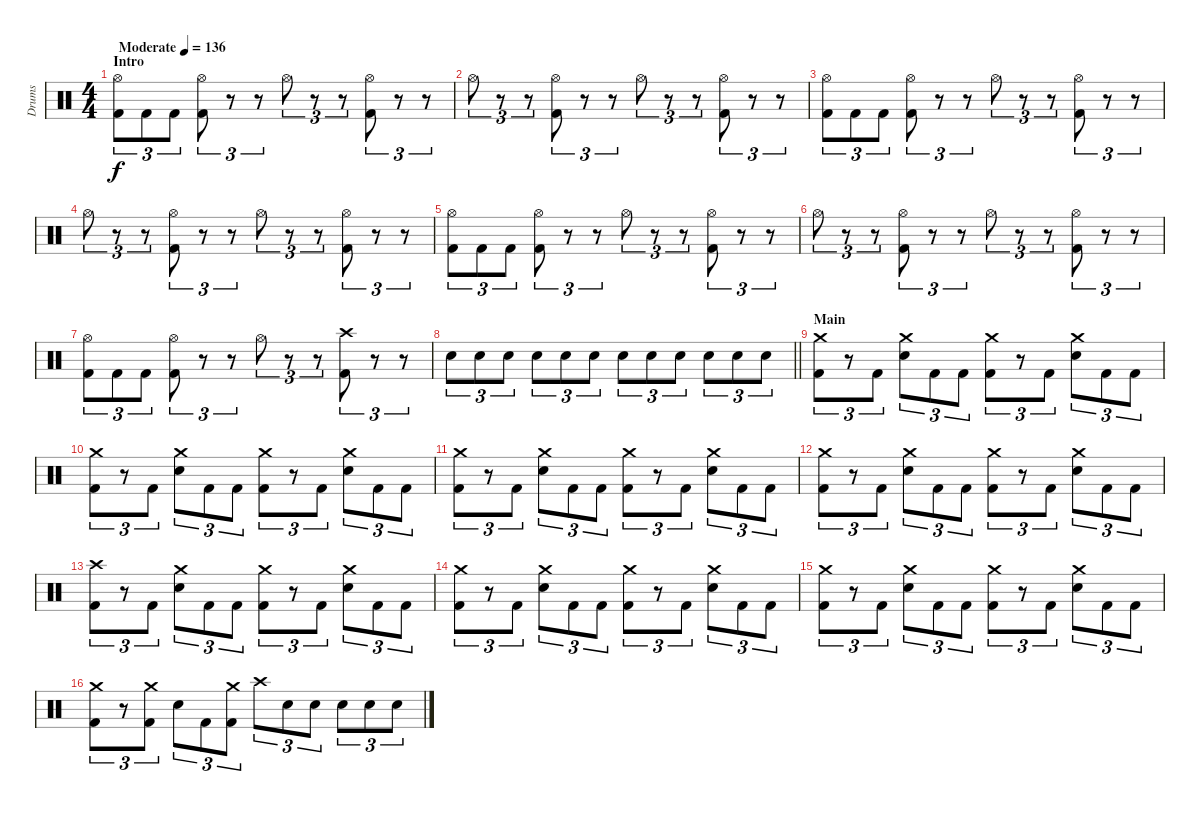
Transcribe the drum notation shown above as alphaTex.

\track ("Drums" "Drums") {instrument percussion}
\staff {score}
\articulation defaults
\ts (4 4)
\section ("" "Intro")
\tempo (136 "Moderate")
\clef neutral
\ks c
("Hi-Hat (open)" "Kick (hit) 2").8{tu (3 2) dy f} "Kick (hit) 2".8{tu (3 2)} "Kick (hit) 2".8{tu (3 2)} ("Hi-Hat (open)" "Kick (hit) 2").8{tu (3 2)} r.8{tu (3 2)} r.8{tu (3 2)} "Hi-Hat (open)".8{tu (3 2)} r.8{tu (3 2)} r.8{tu (3 2)} ("Hi-Hat (open)" "Kick (hit) 2").8{tu (3 2)} r.8{tu (3 2)} r.8{tu (3 2)} |
"Hi-Hat (open)".8{tu (3 2)} r.8{tu (3 2)} r.8{tu (3 2)} ("Hi-Hat (open)" "Kick (hit) 2").8{tu (3 2)} r.8{tu (3 2)} r.8{tu (3 2)} "Hi-Hat (open)".8{tu (3 2)} r.8{tu (3 2)} r.8{tu (3 2)} ("Hi-Hat (open)" "Kick (hit) 2").8{tu (3 2)} r.8{tu (3 2)} r.8{tu (3 2)} |
("Hi-Hat (open)" "Kick (hit) 2").8{tu (3 2)} "Kick (hit) 2".8{tu (3 2)} "Kick (hit) 2".8{tu (3 2)} ("Hi-Hat (open)" "Kick (hit) 2").8{tu (3 2)} r.8{tu (3 2)} r.8{tu (3 2)} "Hi-Hat (open)".8{tu (3 2)} r.8{tu (3 2)} r.8{tu (3 2)} ("Hi-Hat (open)" "Kick (hit) 2").8{tu (3 2)} r.8{tu (3 2)} r.8{tu (3 2)} |
"Hi-Hat (open)".8{tu (3 2)} r.8{tu (3 2)} r.8{tu (3 2)} ("Hi-Hat (open)" "Kick (hit) 2").8{tu (3 2)} r.8{tu (3 2)} r.8{tu (3 2)} "Hi-Hat (open)".8{tu (3 2)} r.8{tu (3 2)} r.8{tu (3 2)} ("Hi-Hat (open)" "Kick (hit) 2").8{tu (3 2)} r.8{tu (3 2)} r.8{tu (3 2)} |
("Hi-Hat (open)" "Kick (hit) 2").8{tu (3 2)} "Kick (hit) 2".8{tu (3 2)} "Kick (hit) 2".8{tu (3 2)} ("Hi-Hat (open)" "Kick (hit) 2").8{tu (3 2)} r.8{tu (3 2)} r.8{tu (3 2)} "Hi-Hat (open)".8{tu (3 2)} r.8{tu (3 2)} r.8{tu (3 2)} ("Hi-Hat (open)" "Kick (hit) 2").8{tu (3 2)} r.8{tu (3 2)} r.8{tu (3 2)} |
"Hi-Hat (open)".8{tu (3 2)} r.8{tu (3 2)} r.8{tu (3 2)} ("Hi-Hat (open)" "Kick (hit) 2").8{tu (3 2)} r.8{tu (3 2)} r.8{tu (3 2)} "Hi-Hat (open)".8{tu (3 2)} r.8{tu (3 2)} r.8{tu (3 2)} ("Hi-Hat (open)" "Kick (hit) 2").8{tu (3 2)} r.8{tu (3 2)} r.8{tu (3 2)} |
("Hi-Hat (open)" "Kick (hit) 2").8{tu (3 2)} "Kick (hit) 2".8{tu (3 2)} "Kick (hit) 2".8{tu (3 2)} ("Hi-Hat (open)" "Kick (hit) 2").8{tu (3 2)} r.8{tu (3 2)} r.8{tu (3 2)} "Hi-Hat (open)".8{tu (3 2)} r.8{tu (3 2)} r.8{tu (3 2)} ("Crash high (hit)" "Kick (hit) 2").8{tu (3 2)} r.8{tu (3 2)} r.8{tu (3 2)} |
\barLineRight lightlight "Electric Snare (hit)".8{tu (3 2)} "Electric Snare (hit)".8{tu (3 2)} "Electric Snare (hit)".8{tu (3 2)} "Electric Snare (hit)".8{tu (3 2)} "Electric Snare (hit)".8{tu (3 2)} "Electric Snare (hit)".8{tu (3 2)} "Electric Snare (hit)".8{tu (3 2)} "Electric Snare (hit)".8{tu (3 2)} "Electric Snare (hit)".8{tu (3 2)} "Electric Snare (hit)".8{tu (3 2)} "Electric Snare (hit)".8{tu (3 2)} "Electric Snare (hit)".8{tu (3 2)}
|
\section ("" "Main")
("Crash medium (hit)" "Kick (hit) 2").8{tu (3 2)} r.8{tu (3 2)} "Kick (hit) 2".8{tu (3 2)} ("Crash medium (hit)" "Electric Snare (hit)").8{tu (3 2)} "Kick (hit) 2".8{tu (3 2)} "Kick (hit) 2".8{tu (3 2)} ("Crash medium (hit)" "Kick (hit) 2").8{tu (3 2)} r.8{tu (3 2)} "Kick (hit) 2".8{tu (3 2)} ("Crash medium (hit)" "Electric Snare (hit)").8{tu (3 2)} "Kick (hit) 2".8{tu (3 2)} "Kick (hit) 2".8{tu (3 2)} |
("Crash medium (hit)" "Kick (hit) 2").8{tu (3 2)} r.8{tu (3 2)} "Kick (hit) 2".8{tu (3 2)} ("Crash medium (hit)" "Electric Snare (hit)").8{tu (3 2)} "Kick (hit) 2".8{tu (3 2)} "Kick (hit) 2".8{tu (3 2)} ("Crash medium (hit)" "Kick (hit) 2").8{tu (3 2)} r.8{tu (3 2)} "Kick (hit) 2".8{tu (3 2)} ("Crash medium (hit)" "Electric Snare (hit)").8{tu (3 2)} "Kick (hit) 2".8{tu (3 2)} "Kick (hit) 2".8{tu (3 2)} |
("Crash medium (hit)" "Kick (hit) 2").8{tu (3 2)} r.8{tu (3 2)} "Kick (hit) 2".8{tu (3 2)} ("Crash medium (hit)" "Electric Snare (hit)").8{tu (3 2)} "Kick (hit) 2".8{tu (3 2)} "Kick (hit) 2".8{tu (3 2)} ("Crash medium (hit)" "Kick (hit) 2").8{tu (3 2)} r.8{tu (3 2)} "Kick (hit) 2".8{tu (3 2)} ("Crash medium (hit)" "Electric Snare (hit)").8{tu (3 2)} "Kick (hit) 2".8{tu (3 2)} "Kick (hit) 2".8{tu (3 2)} |
("Crash medium (hit)" "Kick (hit) 2").8{tu (3 2)} r.8{tu (3 2)} "Kick (hit) 2".8{tu (3 2)} ("Crash medium (hit)" "Electric Snare (hit)").8{tu (3 2)} "Kick (hit) 2".8{tu (3 2)} "Kick (hit) 2".8{tu (3 2)} ("Crash medium (hit)" "Kick (hit) 2").8{tu (3 2)} r.8{tu (3 2)} "Kick (hit) 2".8{tu (3 2)} ("Crash medium (hit)" "Electric Snare (hit)").8{tu (3 2)} "Kick (hit) 2".8{tu (3 2)} "Kick (hit) 2".8{tu (3 2)} |
("Crash high (hit)" "Kick (hit) 2").8{tu (3 2)} r.8{tu (3 2)} "Kick (hit) 2".8{tu (3 2)} ("Crash medium (hit)" "Electric Snare (hit)").8{tu (3 2)} "Kick (hit) 2".8{tu (3 2)} "Kick (hit) 2".8{tu (3 2)} ("Crash medium (hit)" "Kick (hit) 2").8{tu (3 2)} r.8{tu (3 2)} "Kick (hit) 2".8{tu (3 2)} ("Crash medium (hit)" "Electric Snare (hit)").8{tu (3 2)} "Kick (hit) 2".8{tu (3 2)} "Kick (hit) 2".8{tu (3 2)} |
("Crash medium (hit)" "Kick (hit) 2").8{tu (3 2)} r.8{tu (3 2)} "Kick (hit) 2".8{tu (3 2)} ("Crash medium (hit)" "Electric Snare (hit)").8{tu (3 2)} "Kick (hit) 2".8{tu (3 2)} "Kick (hit) 2".8{tu (3 2)} ("Crash medium (hit)" "Kick (hit) 2").8{tu (3 2)} r.8{tu (3 2)} "Kick (hit) 2".8{tu (3 2)} ("Crash medium (hit)" "Electric Snare (hit)").8{tu (3 2)} "Kick (hit) 2".8{tu (3 2)} "Kick (hit) 2".8{tu (3 2)} |
("Crash medium (hit)" "Kick (hit) 2").8{tu (3 2)} r.8{tu (3 2)} "Kick (hit) 2".8{tu (3 2)} ("Crash medium (hit)" "Electric Snare (hit)").8{tu (3 2)} "Kick (hit) 2".8{tu (3 2)} "Kick (hit) 2".8{tu (3 2)} ("Crash medium (hit)" "Kick (hit) 2").8{tu (3 2)} r.8{tu (3 2)} "Kick (hit) 2".8{tu (3 2)} ("Crash medium (hit)" "Electric Snare (hit)").8{tu (3 2)} "Kick (hit) 2".8{tu (3 2)} "Kick (hit) 2".8{tu (3 2)} |
("Crash medium (hit)" "Kick (hit) 2").8{tu (3 2)} r.8{tu (3 2)} ("Crash medium (hit)" "Kick (hit) 2").8{tu (3 2)} "Electric Snare (hit)".8{tu (3 2)} "Kick (hit) 2".8{tu (3 2)} ("Crash medium (hit)" "Kick (hit) 2").8{tu (3 2)} "Crash high (hit)".8{tu (3 2)} "Electric Snare (hit)".8{tu (3 2)} "Electric Snare (hit)".8{tu (3 2)} "Electric Snare (hit)".8{tu (3 2)} "Electric Snare (hit)".8{tu (3 2)} "Electric Snare (hit)".8{tu (3 2)}
